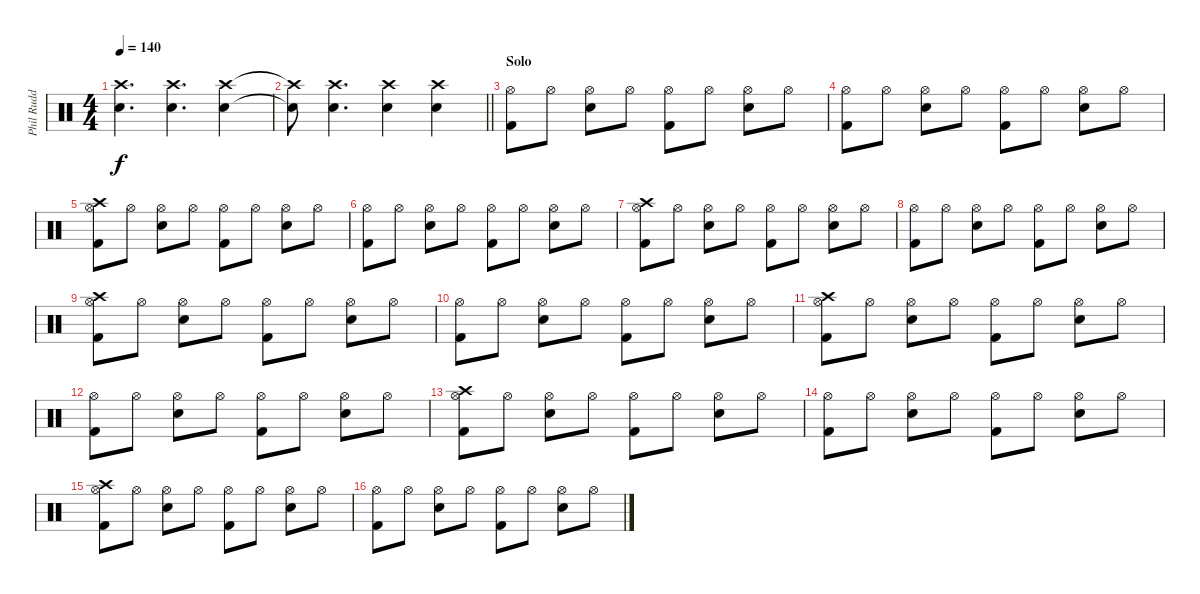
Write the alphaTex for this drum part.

\track ("Phil Rudd" "Phil Rudd") {instrument percussion}
\staff {score}
\articulation defaults
\ts (4 4)
\tempo 140
\clef neutral
\ks c
("Crash high (hit)" "Snare (hit) 2").4{d dy f} ("Crash high (hit)" "Snare (hit) 2").4{d} ("Crash high (hit)" "Snare (hit) 2").4 |
\barLineRight lightlight
("Crash high (hit)"{t} "Snare (hit) 2"{t}).8 ("Crash high (hit)" "Snare (hit) 2").4{d} ("Crash high (hit)" "Snare (hit) 2").4 ("Crash high (hit)" "Snare (hit) 2").4 |
\section ("" "Solo")
("Hi-Hat (open)" "Kick (hit) 2").8 "Hi-Hat (open)".8 ("Hi-Hat (open)" "Snare (hit) 2").8 "Hi-Hat (open)".8 ("Hi-Hat (open)" "Kick (hit) 2").8 "Hi-Hat (open)".8 ("Hi-Hat (open)" "Snare (hit) 2").8 "Hi-Hat (open)".8 |
("Hi-Hat (open)" "Kick (hit) 2").8 "Hi-Hat (open)".8 ("Hi-Hat (open)" "Snare (hit) 2").8 "Hi-Hat (open)".8 ("Hi-Hat (open)" "Kick (hit) 2").8 "Hi-Hat (open)".8 ("Hi-Hat (open)" "Snare (hit) 2").8 "Hi-Hat (open)".8 |
("Crash high (hit)" "Hi-Hat (open)" "Kick (hit) 2").8 "Hi-Hat (open)".8 ("Hi-Hat (open)" "Snare (hit) 2").8 "Hi-Hat (open)".8 ("Hi-Hat (open)" "Kick (hit) 2").8 "Hi-Hat (open)".8 ("Hi-Hat (open)" "Snare (hit) 2").8 "Hi-Hat (open)".8 |
("Hi-Hat (open)" "Kick (hit) 2").8 "Hi-Hat (open)".8 ("Hi-Hat (open)" "Snare (hit) 2").8 "Hi-Hat (open)".8 ("Hi-Hat (open)" "Kick (hit) 2").8 "Hi-Hat (open)".8 ("Hi-Hat (open)" "Snare (hit) 2").8 "Hi-Hat (open)".8 |
("Crash high (hit)" "Hi-Hat (open)" "Kick (hit) 2").8 "Hi-Hat (open)".8 ("Hi-Hat (open)" "Snare (hit) 2").8 "Hi-Hat (open)".8 ("Hi-Hat (open)" "Kick (hit) 2").8 "Hi-Hat (open)".8 ("Hi-Hat (open)" "Snare (hit) 2").8 "Hi-Hat (open)".8 |
("Hi-Hat (open)" "Kick (hit) 2").8 "Hi-Hat (open)".8 ("Hi-Hat (open)" "Snare (hit) 2").8 "Hi-Hat (open)".8 ("Hi-Hat (open)" "Kick (hit) 2").8 "Hi-Hat (open)".8 ("Hi-Hat (open)" "Snare (hit) 2").8 "Hi-Hat (open)".8 |
("Crash high (hit)" "Hi-Hat (open)" "Kick (hit) 2").8 "Hi-Hat (open)".8 ("Hi-Hat (open)" "Snare (hit) 2").8 "Hi-Hat (open)".8 ("Hi-Hat (open)" "Kick (hit) 2").8 "Hi-Hat (open)".8 ("Hi-Hat (open)" "Snare (hit) 2").8 "Hi-Hat (open)".8 |
("Hi-Hat (open)" "Kick (hit) 2").8 "Hi-Hat (open)".8 ("Hi-Hat (open)" "Snare (hit) 2").8 "Hi-Hat (open)".8 ("Hi-Hat (open)" "Kick (hit) 2").8 "Hi-Hat (open)".8 ("Hi-Hat (open)" "Snare (hit) 2").8 "Hi-Hat (open)".8 |
("Crash high (hit)" "Hi-Hat (open)" "Kick (hit) 2").8 "Hi-Hat (open)".8 ("Hi-Hat (open)" "Snare (hit) 2").8 "Hi-Hat (open)".8 ("Hi-Hat (open)" "Kick (hit) 2").8 "Hi-Hat (open)".8 ("Hi-Hat (open)" "Snare (hit) 2").8 "Hi-Hat (open)".8 |
("Hi-Hat (open)" "Kick (hit) 2").8 "Hi-Hat (open)".8 ("Hi-Hat (open)" "Snare (hit) 2").8 "Hi-Hat (open)".8 ("Hi-Hat (open)" "Kick (hit) 2").8 "Hi-Hat (open)".8 ("Hi-Hat (open)" "Snare (hit) 2").8 "Hi-Hat (open)".8 |
("Crash high (hit)" "Hi-Hat (open)" "Kick (hit) 2").8 "Hi-Hat (open)".8 ("Hi-Hat (open)" "Snare (hit) 2").8 "Hi-Hat (open)".8 ("Hi-Hat (open)" "Kick (hit) 2").8 "Hi-Hat (open)".8 ("Hi-Hat (open)" "Snare (hit) 2").8 "Hi-Hat (open)".8 |
("Hi-Hat (open)" "Kick (hit) 2").8 "Hi-Hat (open)".8 ("Hi-Hat (open)" "Snare (hit) 2").8 "Hi-Hat (open)".8 ("Hi-Hat (open)" "Kick (hit) 2").8 "Hi-Hat (open)".8 ("Hi-Hat (open)" "Snare (hit) 2").8 "Hi-Hat (open)".8 |
("Crash high (hit)" "Hi-Hat (open)" "Kick (hit) 2").8 "Hi-Hat (open)".8 ("Hi-Hat (open)" "Snare (hit) 2").8 "Hi-Hat (open)".8 ("Hi-Hat (open)" "Kick (hit) 2").8 "Hi-Hat (open)".8 ("Hi-Hat (open)" "Snare (hit) 2").8 "Hi-Hat (open)".8 |
("Hi-Hat (open)" "Kick (hit) 2").8 "Hi-Hat (open)".8 ("Hi-Hat (open)" "Snare (hit) 2").8 "Hi-Hat (open)".8 ("Hi-Hat (open)" "Kick (hit) 2").8 "Hi-Hat (open)".8 ("Hi-Hat (open)" "Snare (hit) 2").8 "Hi-Hat (open)".8
